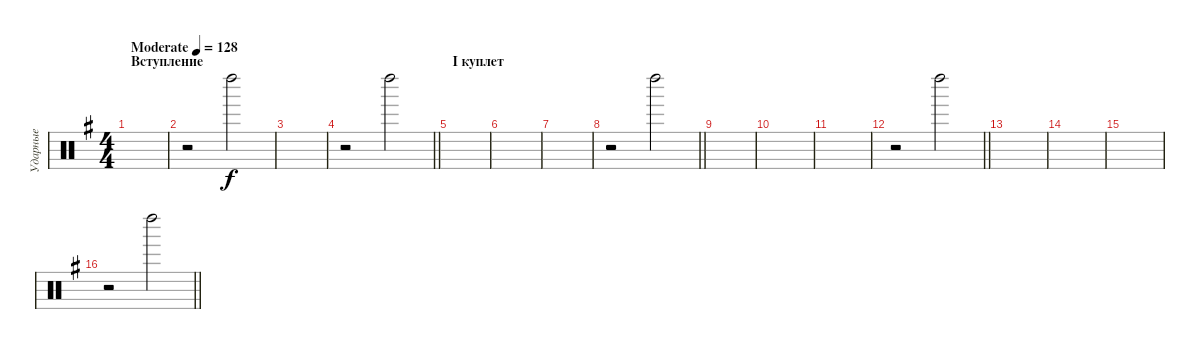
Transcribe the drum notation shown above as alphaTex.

\track ("Ударные" "Ударные") {instrument percussion}
\staff {score}
\articulation defaults
\ts (4 4)
\section ("" "Вступление")
\tempo (128 "Moderate")
\clef neutral
\ks eminor
|
r.2 "Left Maraca (hit)".2 |
|
\barLineRight lightlight
r.2 "Left Maraca (hit)".2 |
\section ("" "I куплет")
|
|
|
\barLineRight lightlight
r.2 "Left Maraca (hit)".2 |
|
|
|
\barLineRight lightlight
r.2 "Left Maraca (hit)".2 |
|
|
|
\barLineRight lightlight
r.2 "Left Maraca (hit)".2
